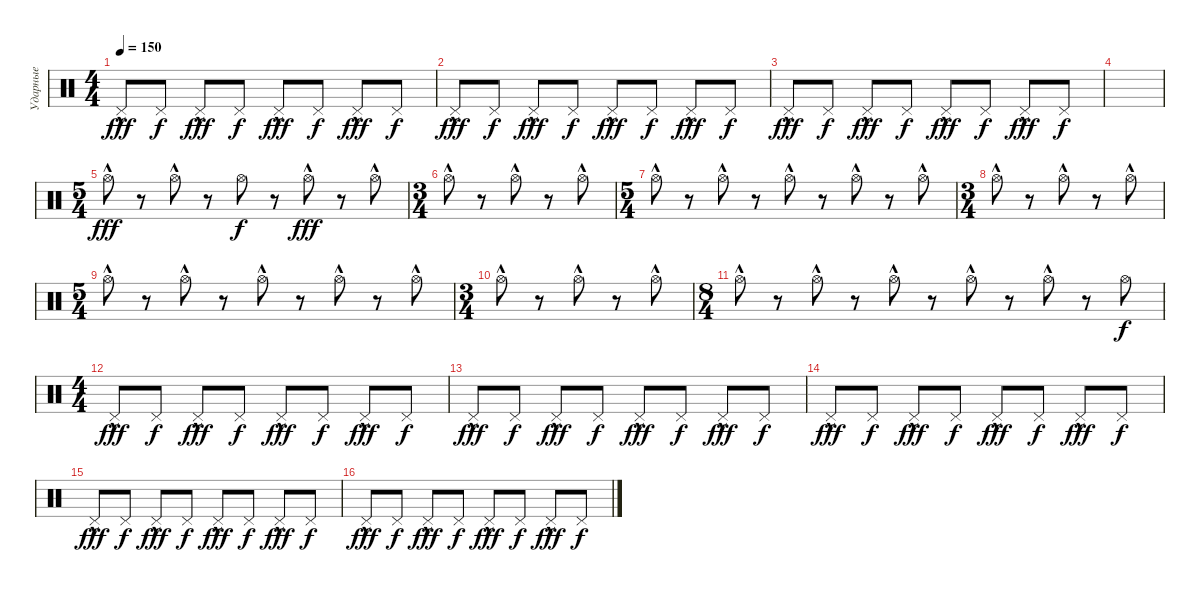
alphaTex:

\track ("Ударные" "Ударные") {instrument percussion}
\staff {score}
\articulation defaults
\ts (4 4)
\tempo 150
\clef neutral
\ks c "Pedal Hi-Hat (hit)"{hac}.8{dy fff} "Pedal Hi-Hat (hit)".8{dy f} "Pedal Hi-Hat (hit)"{hac}.8{dy fff} "Pedal Hi-Hat (hit)".8{dy f} "Pedal Hi-Hat (hit)"{hac}.8{dy fff} "Pedal Hi-Hat (hit)".8{dy f} "Pedal Hi-Hat (hit)"{hac}.8{dy fff} "Pedal Hi-Hat (hit)".8{dy f}
|
"Pedal Hi-Hat (hit)"{hac}.8{dy fff} "Pedal Hi-Hat (hit)".8{dy f} "Pedal Hi-Hat (hit)"{hac}.8{dy fff} "Pedal Hi-Hat (hit)".8{dy f} "Pedal Hi-Hat (hit)"{hac}.8{dy fff} "Pedal Hi-Hat (hit)".8{dy f} "Pedal Hi-Hat (hit)"{hac}.8{dy fff} "Pedal Hi-Hat (hit)".8{dy f} |
"Pedal Hi-Hat (hit)"{hac}.8{dy fff} "Pedal Hi-Hat (hit)".8{dy f} "Pedal Hi-Hat (hit)"{hac}.8{dy fff} "Pedal Hi-Hat (hit)".8{dy f} "Pedal Hi-Hat (hit)"{hac}.8{dy fff} "Pedal Hi-Hat (hit)".8{dy f} "Pedal Hi-Hat (hit)"{hac}.8{dy fff} "Pedal Hi-Hat (hit)".8{dy f} |
|
\ts (5 4)
"Hi-Hat (open)"{hac}.8{dy fff} r.8 "Hi-Hat (open)"{hac}.8 r.8 "Hi-Hat (open)".8{dy f} r.8 "Hi-Hat (open)"{hac}.8{dy fff} r.8 "Hi-Hat (open)"{hac}.8 |
\ts (3 4)
"Hi-Hat (open)"{hac}.8 r.8 "Hi-Hat (open)"{hac}.8 r.8 "Hi-Hat (open)"{hac}.8 |
\ts (5 4)
"Hi-Hat (open)"{hac}.8 r.8 "Hi-Hat (open)"{hac}.8 r.8 "Hi-Hat (open)"{hac}.8 r.8 "Hi-Hat (open)"{hac}.8 r.8 "Hi-Hat (open)"{hac}.8 |
\ts (3 4)
"Hi-Hat (open)"{hac}.8 r.8 "Hi-Hat (open)"{hac}.8 r.8 "Hi-Hat (open)"{hac}.8 |
\ts (5 4)
"Hi-Hat (open)"{hac}.8 r.8 "Hi-Hat (open)"{hac}.8 r.8 "Hi-Hat (open)"{hac}.8 r.8 "Hi-Hat (open)"{hac}.8 r.8 "Hi-Hat (open)"{hac}.8 |
\ts (3 4)
"Hi-Hat (open)"{hac}.8 r.8 "Hi-Hat (open)"{hac}.8 r.8 "Hi-Hat (open)"{hac}.8 |
\ts (8 4)
"Hi-Hat (open)"{hac}.8 r.8 "Hi-Hat (open)"{hac}.8 r.8 "Hi-Hat (open)"{hac}.8 r.8 "Hi-Hat (open)"{hac}.8 r.8 "Hi-Hat (open)"{hac}.8 r.8 "Hi-Hat (open)".8{dy f} |
\ts (4 4)
"Pedal Hi-Hat (hit)"{hac}.8{dy fff} "Pedal Hi-Hat (hit)".8{dy f} "Pedal Hi-Hat (hit)"{hac}.8{dy fff} "Pedal Hi-Hat (hit)".8{dy f} "Pedal Hi-Hat (hit)"{hac}.8{dy fff} "Pedal Hi-Hat (hit)".8{dy f} "Pedal Hi-Hat (hit)"{hac}.8{dy fff} "Pedal Hi-Hat (hit)".8{dy f} |
"Pedal Hi-Hat (hit)"{hac}.8{dy fff} "Pedal Hi-Hat (hit)".8{dy f} "Pedal Hi-Hat (hit)"{hac}.8{dy fff} "Pedal Hi-Hat (hit)".8{dy f} "Pedal Hi-Hat (hit)"{hac}.8{dy fff} "Pedal Hi-Hat (hit)".8{dy f} "Pedal Hi-Hat (hit)"{hac}.8{dy fff} "Pedal Hi-Hat (hit)".8{dy f} |
"Pedal Hi-Hat (hit)"{hac}.8{dy fff} "Pedal Hi-Hat (hit)".8{dy f} "Pedal Hi-Hat (hit)"{hac}.8{dy fff} "Pedal Hi-Hat (hit)".8{dy f} "Pedal Hi-Hat (hit)"{hac}.8{dy fff} "Pedal Hi-Hat (hit)".8{dy f} "Pedal Hi-Hat (hit)"{hac}.8{dy fff} "Pedal Hi-Hat (hit)".8{dy f} |
"Pedal Hi-Hat (hit)"{hac}.8{dy fff} "Pedal Hi-Hat (hit)".8{dy f} "Pedal Hi-Hat (hit)"{hac}.8{dy fff} "Pedal Hi-Hat (hit)".8{dy f} "Pedal Hi-Hat (hit)"{hac}.8{dy fff} "Pedal Hi-Hat (hit)".8{dy f} "Pedal Hi-Hat (hit)"{hac}.8{dy fff} "Pedal Hi-Hat (hit)".8{dy f} |
"Pedal Hi-Hat (hit)"{hac}.8{dy fff} "Pedal Hi-Hat (hit)".8{dy f} "Pedal Hi-Hat (hit)"{hac}.8{dy fff} "Pedal Hi-Hat (hit)".8{dy f} "Pedal Hi-Hat (hit)"{hac}.8{dy fff} "Pedal Hi-Hat (hit)".8{dy f} "Pedal Hi-Hat (hit)"{hac}.8{dy fff} "Pedal Hi-Hat (hit)".8{dy f}
